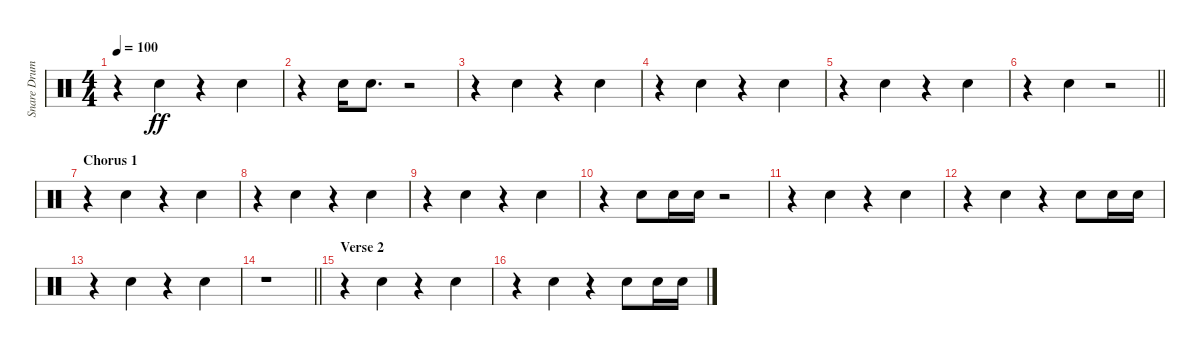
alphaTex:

\track ("Snare Drum" "Snare Drum") {instrument percussion}
\staff {score}
\articulation defaults
\ts (4 4)
\tempo 100
\clef neutral
\ks c
r.4{dy ff} "Electric Snare (hit)".4 r.4 "Electric Snare (hit)".4 |
r.4 "Electric Snare (hit)".16 "Electric Snare (hit)".8{d} r.2 |
r.4 "Electric Snare (hit)".4 r.4 "Electric Snare (hit)".4 |
r.4 "Electric Snare (hit)".4 r.4 "Electric Snare (hit)".4 |
r.4 "Electric Snare (hit)".4 r.4 "Electric Snare (hit)".4 |
\barLineRight lightlight
r.4 "Electric Snare (hit)".4 r.2 |
\section ("" "Chorus 1")
r.4 "Electric Snare (hit)".4 r.4 "Electric Snare (hit)".4 |
r.4 "Electric Snare (hit)".4 r.4 "Electric Snare (hit)".4 |
r.4 "Electric Snare (hit)".4 r.4 "Electric Snare (hit)".4 |
r.4 "Electric Snare (hit)".8 "Electric Snare (hit)".16 "Electric Snare (hit)".16 r.2 |
r.4 "Electric Snare (hit)".4 r.4 "Electric Snare (hit)".4 |
r.4 "Electric Snare (hit)".4 r.4 "Electric Snare (hit)".8 "Electric Snare (hit)".16 "Electric Snare (hit)".16 |
r.4 "Electric Snare (hit)".4 r.4 "Electric Snare (hit)".4 |
\barLineRight lightlight
r.1 |
\section ("" "Verse 2")
r.4 "Electric Snare (hit)".4 r.4 "Electric Snare (hit)".4 |
r.4 "Electric Snare (hit)".4 r.4 "Electric Snare (hit)".8 "Electric Snare (hit)".16 "Electric Snare (hit)".16
